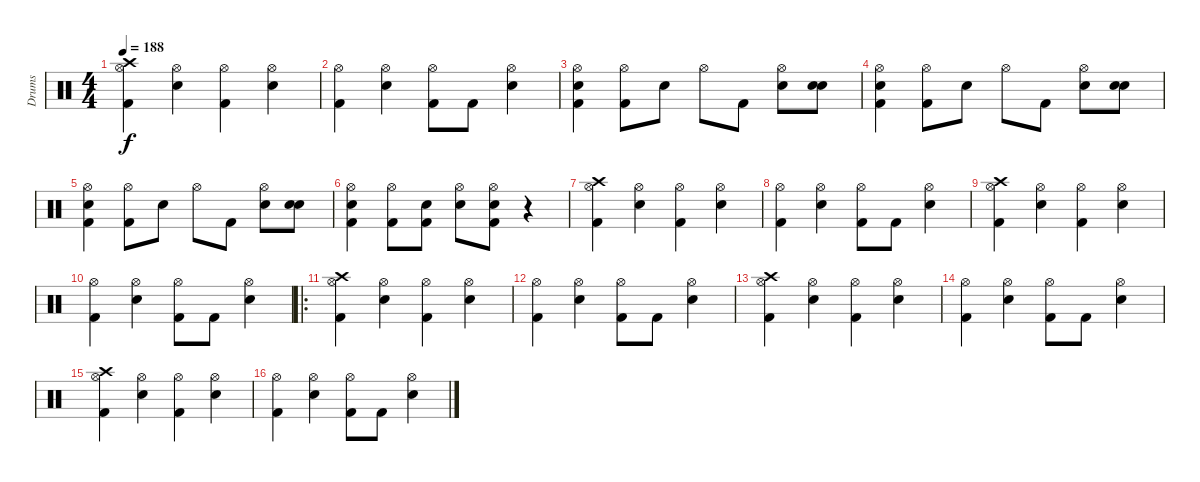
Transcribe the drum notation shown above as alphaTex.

\track ("Drums" "Drums") {instrument percussion}
\staff {score}
\articulation defaults
\ts (4 4)
\tempo 188
\clef neutral
\ks c
("Crash high (hit)" "Hi-Hat (open)" "Kick (hit) 2").4{dy f} ("Hi-Hat (open)" "Snare (hit) 2").4 ("Hi-Hat (open)" "Kick (hit) 2").4 ("Hi-Hat (open)" "Snare (hit) 2").4 |
("Hi-Hat (open)" "Kick (hit) 2").4 ("Hi-Hat (open)" "Snare (hit) 2").4 ("Hi-Hat (open)" "Kick (hit) 2").8 "Kick (hit) 2".8 ("Hi-Hat (open)" "Snare (hit) 2").4 |
("Hi-Hat (open)" "Snare (hit) 2" "Kick (hit) 2").4 ("Hi-Hat (open)" "Kick (hit) 2").8 "Snare (hit) 2".8 "Hi-Hat (open)".8 "Kick (hit) 2".8 ("Hi-Hat (open)" "Snare (hit) 2").8 ("Snare (hit) 2" "Snare (hit) 2").8 |
("Hi-Hat (open)" "Snare (hit) 2" "Kick (hit) 2").4 ("Hi-Hat (open)" "Kick (hit) 2").8 "Snare (hit) 2".8 "Hi-Hat (open)".8 "Kick (hit) 2".8 ("Hi-Hat (open)" "Snare (hit) 2").8 ("Snare (hit) 2" "Snare (hit) 2").8 |
("Hi-Hat (open)" "Snare (hit) 2" "Kick (hit) 2").4 ("Hi-Hat (open)" "Kick (hit) 2").8 "Snare (hit) 2".8 "Hi-Hat (open)".8 "Kick (hit) 2".8 ("Hi-Hat (open)" "Snare (hit) 2").8 ("Snare (hit) 2" "Snare (hit) 2").8 |
("Hi-Hat (open)" "Snare (hit) 2" "Kick (hit) 2").4 ("Hi-Hat (open)" "Kick (hit) 2").8 ("Snare (hit) 2" "Kick (hit) 2").8 ("Hi-Hat (open)" "Snare (hit) 2").8 ("Hi-Hat (open)" "Snare (hit) 2" "Kick (hit) 2").8 r.4 |
("Crash high (hit)" "Hi-Hat (open)" "Kick (hit) 2").4 ("Hi-Hat (open)" "Snare (hit) 2").4 ("Hi-Hat (open)" "Kick (hit) 2").4 ("Hi-Hat (open)" "Snare (hit) 2").4 |
("Hi-Hat (open)" "Kick (hit) 2").4 ("Hi-Hat (open)" "Snare (hit) 2").4 ("Hi-Hat (open)" "Kick (hit) 2").8 "Kick (hit) 2".8 ("Hi-Hat (open)" "Snare (hit) 2").4 |
("Crash high (hit)" "Hi-Hat (open)" "Kick (hit) 2").4 ("Hi-Hat (open)" "Snare (hit) 2").4 ("Hi-Hat (open)" "Kick (hit) 2").4 ("Hi-Hat (open)" "Snare (hit) 2").4 |
("Hi-Hat (open)" "Kick (hit) 2").4 ("Hi-Hat (open)" "Snare (hit) 2").4 ("Hi-Hat (open)" "Kick (hit) 2").8 "Kick (hit) 2".8 ("Hi-Hat (open)" "Snare (hit) 2").4 |
\ro
("Crash high (hit)" "Hi-Hat (open)" "Kick (hit) 2").4 ("Hi-Hat (open)" "Snare (hit) 2").4 ("Hi-Hat (open)" "Kick (hit) 2").4 ("Hi-Hat (open)" "Snare (hit) 2").4 |
("Hi-Hat (open)" "Kick (hit) 2").4 ("Hi-Hat (open)" "Snare (hit) 2").4 ("Hi-Hat (open)" "Kick (hit) 2").8 "Kick (hit) 2".8 ("Hi-Hat (open)" "Snare (hit) 2").4 |
("Crash high (hit)" "Hi-Hat (open)" "Kick (hit) 2").4 ("Hi-Hat (open)" "Snare (hit) 2").4 ("Hi-Hat (open)" "Kick (hit) 2").4 ("Hi-Hat (open)" "Snare (hit) 2").4 |
("Hi-Hat (open)" "Kick (hit) 2").4 ("Hi-Hat (open)" "Snare (hit) 2").4 ("Hi-Hat (open)" "Kick (hit) 2").8 "Kick (hit) 2".8 ("Hi-Hat (open)" "Snare (hit) 2").4 |
("Crash high (hit)" "Hi-Hat (open)" "Kick (hit) 2").4 ("Hi-Hat (open)" "Snare (hit) 2").4 ("Hi-Hat (open)" "Kick (hit) 2").4 ("Hi-Hat (open)" "Snare (hit) 2").4 |
("Hi-Hat (open)" "Kick (hit) 2").4 ("Hi-Hat (open)" "Snare (hit) 2").4 ("Hi-Hat (open)" "Kick (hit) 2").8 "Kick (hit) 2".8 ("Hi-Hat (open)" "Snare (hit) 2").4
